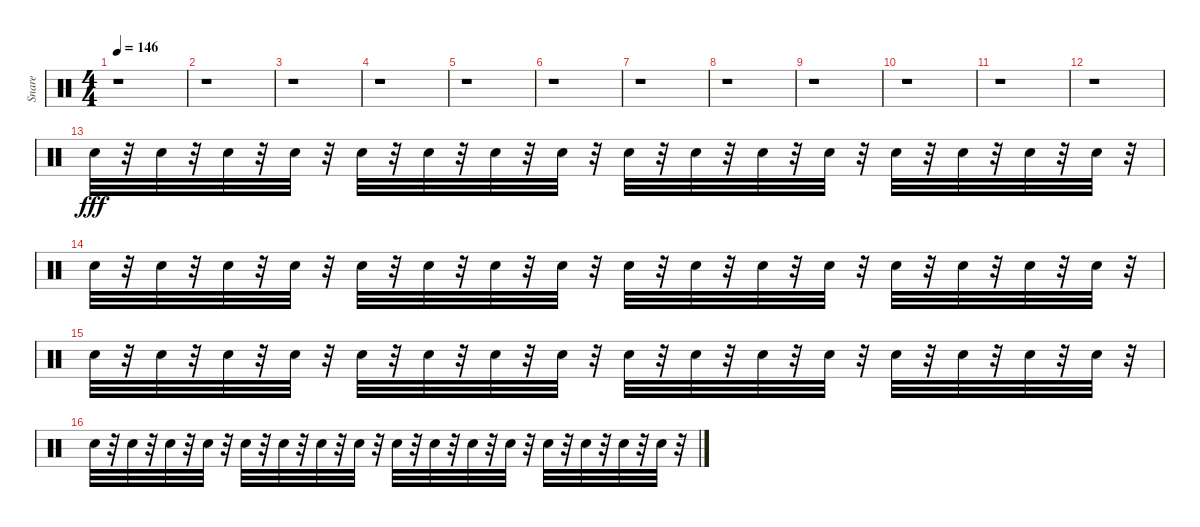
\track ("Snare" "Snare") {instrument percussion}
\staff {score}
\articulation defaults
\ts (4 4)
\tempo 146
\clef neutral
\ks c
r.1{dy fff} |
r.1 |
r.1 |
r.1 |
r.1 |
r.1 |
r.1 |
r.1 |
r.1 |
r.1 |
r.1 |
r.1 |
"Electric Snare (hit)".32{volume 1} r.32 "Electric Snare (hit)".32{volume 1} r.32 "Electric Snare (hit)".32{volume 2} r.32 "Electric Snare (hit)".32{volume 2} r.32 "Electric Snare (hit)".32{volume 2} r.32 "Electric Snare (hit)".32{volume 2} r.32 "Electric Snare (hit)".32{volume 2} r.32 "Electric Snare (hit)".32{volume 2} r.32 "Electric Snare (hit)".32{volume 2} r.32 "Electric Snare (hit)".32{volume 2} r.32 "Electric Snare (hit)".32{volume 2} r.32 "Electric Snare (hit)".32{volume 3} r.32 "Electric Snare (hit)".32{volume 3} r.32 "Electric Snare (hit)".32{volume 3} r.32 "Electric Snare (hit)".32{volume 3} r.32 "Electric Snare (hit)".32{volume 3} r.32 |
"Electric Snare (hit)".32{volume 3} r.32 "Electric Snare (hit)".32{volume 3} r.32 "Electric Snare (hit)".32{volume 4} r.32 "Electric Snare (hit)".32{volume 4} r.32 "Electric Snare (hit)".32{volume 4} r.32 "Electric Snare (hit)".32{volume 4} r.32 "Electric Snare (hit)".32{volume 4} r.32 "Electric Snare (hit)".32{volume 4} r.32 "Electric Snare (hit)".32{volume 4} r.32 "Electric Snare (hit)".32{volume 4} r.32 "Electric Snare (hit)".32{volume 4} r.32 "Electric Snare (hit)".32{volume 5} r.32 "Electric Snare (hit)".32{volume 5} r.32 "Electric Snare (hit)".32{volume 5} r.32 "Electric Snare (hit)".32{volume 5} r.32 "Electric Snare (hit)".32{volume 5} r.32 |
"Electric Snare (hit)".32{volume 5} r.32 "Electric Snare (hit)".32{volume 5} r.32 "Electric Snare (hit)".32{volume 6} r.32 "Electric Snare (hit)".32{volume 6} r.32 "Electric Snare (hit)".32{volume 6} r.32 "Electric Snare (hit)".32{volume 6} r.32 "Electric Snare (hit)".32{volume 6} r.32 "Electric Snare (hit)".32{volume 6} r.32 "Electric Snare (hit)".32{volume 6} r.32 "Electric Snare (hit)".32{volume 6} r.32 "Electric Snare (hit)".32{volume 6} r.32 "Electric Snare (hit)".32{volume 7} r.32 "Electric Snare (hit)".32{volume 7} r.32 "Electric Snare (hit)".32{volume 7} r.32 "Electric Snare (hit)".32{volume 7} r.32 "Electric Snare (hit)".32{volume 7} r.32 |
"Electric Snare (hit)".32{volume 7} r.32 "Electric Snare (hit)".32{volume 7} r.32 "Electric Snare (hit)".32{volume 8} r.32 "Electric Snare (hit)".32{volume 8} r.32 "Electric Snare (hit)".32{volume 8} r.32 "Electric Snare (hit)".32{volume 8} r.32 "Electric Snare (hit)".32{volume 8} r.32 "Electric Snare (hit)".32{volume 8} r.32 "Electric Snare (hit)".32{volume 8} r.32 "Electric Snare (hit)".32{volume 8} r.32 "Electric Snare (hit)".32{volume 8} r.32 "Electric Snare (hit)".32{volume 9} r.32 "Electric Snare (hit)".32{volume 9} r.32 "Electric Snare (hit)".32{volume 9} r.32 "Electric Snare (hit)".32{volume 9} r.32 "Electric Snare (hit)".32{volume 9} r.32
